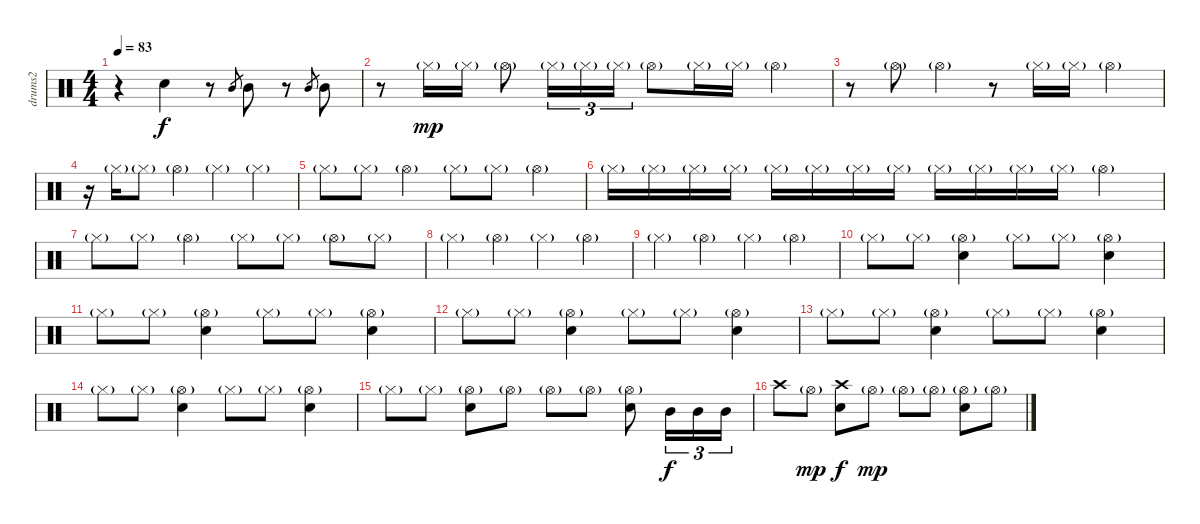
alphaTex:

\track ("drums2" "drums2") {instrument percussion}
\staff {score}
\articulation defaults
\ts (4 4)
\tempo 83
\clef neutral
\ks c
r.4{dy f} "Snare (hit) 2".4 r.8 "Mid Tom (hit)".8{gr} "Mid Tom (hit)".8 r.8 "Mid Tom (hit)".8{gr} "Mid Tom (hit)".8 |
r.8 "Hi-Hat (closed)"{g}.16{dy mp} "Hi-Hat (closed)"{g}.16 "Hi-Hat (open)"{g}.8 "Hi-Hat (closed)"{g}.16{tu (3 2)} "Hi-Hat (closed)"{g}.16{tu (3 2)} "Hi-Hat (closed)"{g}.16{tu (3 2)} "Hi-Hat (open)"{g}.8 "Hi-Hat (closed)"{g}.16 "Hi-Hat (closed)"{g}.16 "Hi-Hat (open)"{g}.4 |
r.8 "Hi-Hat (open)"{g}.8 "Hi-Hat (open)"{g}.4 r.8 "Hi-Hat (closed)"{g}.16 "Hi-Hat (closed)"{g}.16 "Hi-Hat (open)"{g}.4 |
r.16 "Hi-Hat (closed)"{g}.16 "Hi-Hat (closed)"{g}.8 "Hi-Hat (open)"{g}.4 "Hi-Hat (closed)"{g}.4 "Hi-Hat (closed)"{g}.4 |
"Hi-Hat (closed)"{g}.8 "Hi-Hat (closed)"{g}.8 "Hi-Hat (open)"{g}.4 "Hi-Hat (closed)"{g}.8 "Hi-Hat (closed)"{g}.8 "Hi-Hat (open)"{g}.4 |
"Hi-Hat (closed)"{g}.16 "Hi-Hat (closed)"{g}.16 "Hi-Hat (closed)"{g}.16 "Hi-Hat (closed)"{g}.16 "Hi-Hat (closed)"{g}.16 "Hi-Hat (closed)"{g}.16 "Hi-Hat (closed)"{g}.16 "Hi-Hat (closed)"{g}.16 "Hi-Hat (closed)"{g}.16 "Hi-Hat (closed)"{g}.16 "Hi-Hat (closed)"{g}.16 "Hi-Hat (closed)"{g}.16 "Hi-Hat (open)"{g}.4 |
"Hi-Hat (closed)"{g}.8 "Hi-Hat (closed)"{g}.8 "Hi-Hat (open)"{g}.4 "Hi-Hat (closed)"{g}.8 "Hi-Hat (closed)"{g}.8 "Hi-Hat (open)"{g}.8 "Hi-Hat (closed)"{g}.8 |
"Hi-Hat (closed)"{g}.4 "Hi-Hat (open)"{g}.4 "Hi-Hat (closed)"{g}.4 "Hi-Hat (open)"{g}.4 |
"Hi-Hat (closed)"{g}.4 "Hi-Hat (open)"{g}.4 "Hi-Hat (closed)"{g}.4 "Hi-Hat (open)"{g}.4 |
"Hi-Hat (closed)"{g}.8 "Hi-Hat (closed)"{g}.8 ("Hi-Hat (open)"{g} "Snare (hit) 2").4 "Hi-Hat (closed)"{g}.8 "Hi-Hat (closed)"{g}.8 ("Hi-Hat (open)"{g} "Snare (hit) 2").4 |
"Hi-Hat (closed)"{g}.8 "Hi-Hat (closed)"{g}.8 ("Hi-Hat (open)"{g} "Snare (hit) 2").4 "Hi-Hat (closed)"{g}.8 "Hi-Hat (closed)"{g}.8 ("Hi-Hat (open)"{g} "Snare (hit) 2").4 |
"Hi-Hat (closed)"{g}.8 "Hi-Hat (closed)"{g}.8 ("Hi-Hat (open)"{g} "Snare (hit) 2").4 "Hi-Hat (closed)"{g}.8 "Hi-Hat (closed)"{g}.8 ("Hi-Hat (open)"{g} "Snare (hit) 2").4 |
"Hi-Hat (closed)"{g}.8 "Hi-Hat (closed)"{g}.8 ("Hi-Hat (open)"{g} "Snare (hit) 2").4 "Hi-Hat (closed)"{g}.8 "Hi-Hat (closed)"{g}.8 ("Hi-Hat (open)"{g} "Snare (hit) 2").4 |
"Hi-Hat (closed)"{g}.8 "Hi-Hat (closed)"{g}.8 ("Hi-Hat (open)"{g} "Snare (hit) 2").4 "Hi-Hat (closed)"{g}.8 "Hi-Hat (closed)"{g}.8 ("Hi-Hat (open)"{g} "Snare (hit) 2").4 |
"Hi-Hat (closed)"{g}.8 "Hi-Hat (closed)"{g}.8 ("Hi-Hat (open)"{g} "Snare (hit) 2").8 "Hi-Hat (open)"{g}.8 "Hi-Hat (open)"{g}.8 "Hi-Hat (open)"{g}.8 ("Hi-Hat (open)"{g} "Snare (hit) 2").8 "Mid Tom (hit)".16{tu (3 2) dy f} "Mid Tom (hit)".16{tu (3 2)} "Mid Tom (hit)".16{tu (3 2)} |
"Crash high (hit)".8 "Hi-Hat (open)"{g}.8{dy mp} ("Crash high (hit)" "Snare (hit) 2").8{dy f} "Hi-Hat (open)"{g}.8{dy mp} "Hi-Hat (open)"{g}.8 "Hi-Hat (open)"{g}.8 ("Hi-Hat (open)"{g} "Snare (hit) 2").8 "Hi-Hat (open)"{g}.8
